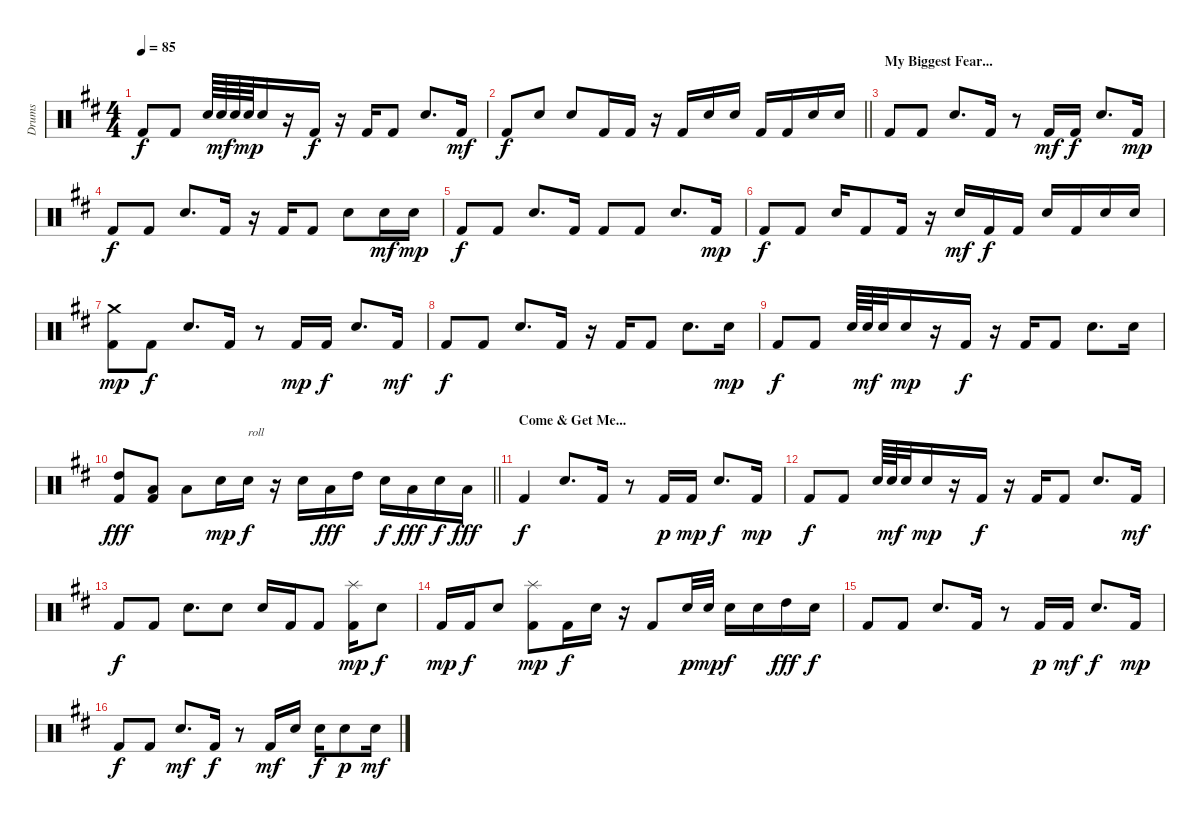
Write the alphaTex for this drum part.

\track ("Drums" "Drums") {instrument percussion}
\staff {score}
\articulation defaults
\ts (4 4)
\tempo 85
\clef neutral
\ks bminor "Kick (hit) 2".8{dy f} "Kick (hit) 2".8 "Electric Snare (hit)".64 "Electric Snare (hit)".64{dy mf} "Electric Snare (hit)".64 "Electric Snare (hit)".64{dy mp} "Electric Snare (hit)".16
r.16 "Kick (hit) 2".16{dy f} r.16 "Kick (hit) 2".16 "Kick (hit) 2".8 "Electric Snare (hit)".8{d} "Kick (hit) 2".16{dy mf} |
\barLineRight lightlight "Kick (hit) 2".8{dy f} "Electric Snare (hit)".8 "Electric Snare (hit)".8 "Kick (hit) 2".16 "Kick (hit) 2".16
r.16 "Kick (hit) 2".16 "Electric Snare (hit)".16 "Electric Snare (hit)".16 "Kick (hit) 2".16 "Kick (hit) 2".16 "Electric Snare (hit)".16 "Electric Snare (hit)".16 |
\section ("" "My Biggest Fear...")
"Kick (hit) 2".8 "Kick (hit) 2".8 "Electric Snare (hit)".8{d} "Kick (hit) 2".16 r.8 "Kick (hit) 2".16{dy mf} "Kick (hit) 2".16{dy f} "Electric Snare (hit)".8{d} "Kick (hit) 2".16{dy mp} |
"Kick (hit) 2".8{dy f} "Kick (hit) 2".8 "Electric Snare (hit)".8{d} "Kick (hit) 2".16 r.16 "Kick (hit) 2".16 "Kick (hit) 2".8 "Electric Snare (hit)".8 "Electric Snare (hit)".16{dy mf} "Electric Snare (hit)".16{dy mp} |
"Kick (hit) 2".8{dy f} "Kick (hit) 2".8 "Electric Snare (hit)".8{d} "Kick (hit) 2".16 "Kick (hit) 2".8 "Kick (hit) 2".8 "Electric Snare (hit)".8{d} "Kick (hit) 2".16{dy mp} |
"Kick (hit) 2".8{dy f} "Kick (hit) 2".8 "Electric Snare (hit)".16 "Kick (hit) 2".8 "Kick (hit) 2".16 r.16 "Electric Snare (hit)".16{dy mf} "Kick (hit) 2".16{dy f} "Kick (hit) 2".16 "Electric Snare (hit)".16 "Kick (hit) 2".16 "Electric Snare (hit)".16 "Electric Snare (hit)".16 |
("Crash medium (hit)" "Kick (hit) 2").8{dy mp} "Kick (hit) 2".8{dy f} "Electric Snare (hit)".8{d} "Kick (hit) 2".16 r.8 "Kick (hit) 2".16{dy mp} "Kick (hit) 2".16{dy f} "Electric Snare (hit)".8{d} "Kick (hit) 2".16{dy mf} |
"Kick (hit) 2".8{dy f} "Kick (hit) 2".8 "Electric Snare (hit)".8{d} "Kick (hit) 2".16 r.16 "Kick (hit) 2".16 "Kick (hit) 2".8 "Electric Snare (hit)".8{d} "Electric Snare (hit)".16{dy mp} |
"Kick (hit) 2".8{dy f} "Kick (hit) 2".8 "Electric Snare (hit)".64 "Electric Snare (hit)".64{dy mf} "Electric Snare (hit)".32 "Electric Snare (hit)".16{dy mp} r.16 "Kick (hit) 2".16{dy f} r.16 "Kick (hit) 2".16 "Kick (hit) 2".8 "Electric Snare (hit)".8{d} "Electric Snare (hit)".16 |
\barLineRight lightlight
("High Tom (hit)" "Kick (hit) 2").8{dy fff} ("Low Tom (hit)" "Kick (hit) 2").8 "Low Floor Tom (hit)".8 "Electric Snare (hit)".16{dy mp} "Electric Snare (hit)".16{txt "roll" dy f} r.16 "Electric Snare (hit)".16 "Low Tom (hit)".16{dy fff} "High Tom (hit)".16 "Electric Snare (hit)".16{dy f} "Low Tom (hit)".16{dy fff} "Electric Snare (hit)".16{dy f} "Low Floor Tom (hit)".16{dy fff} |
\section ("" "Come & Get Me...")
"Kick (hit) 2".4{dy f} "Electric Snare (hit)".8{d} "Kick (hit) 2".16 r.8 "Kick (hit) 2".16{dy p} "Kick (hit) 2".16{dy mp} "Electric Snare (hit)".8{d dy f} "Kick (hit) 2".16{dy mp} |
"Kick (hit) 2".8{dy f} "Kick (hit) 2".8 "Electric Snare (hit)".64 "Electric Snare (hit)".64{dy mf} "Electric Snare (hit)".32 "Electric Snare (hit)".16{dy mp} r.16 "Kick (hit) 2".16{dy f} r.16 "Kick (hit) 2".16 "Kick (hit) 2".8 "Electric Snare (hit)".8{d} "Kick (hit) 2".16{dy mf} |
"Kick (hit) 2".8{dy f} "Kick (hit) 2".8 "Electric Snare (hit)".8{d} "Electric Snare (hit)".8 "Electric Snare (hit)".16 "Kick (hit) 2".16 "Kick (hit) 2".8 ("Splash (hit)" "Kick (hit) 2").16{dy mp} "Electric Snare (hit)".8{dy f} |
"Kick (hit) 2".16{dy mp} "Kick (hit) 2".16{dy f} "Electric Snare (hit)".8 ("Splash (hit)" "Kick (hit) 2").8{dy mp} "Kick (hit) 2".16{dy f} "Electric Snare (hit)".16 r.16 "Kick (hit) 2".8 "Electric Snare (hit)".32{dy p} "Electric Snare (hit)".32{dy mp} "Electric Snare (hit)".16{dy f} "Electric Snare (hit)".16 "High Tom (hit)".16{dy fff} "Electric Snare (hit)".16{dy f} |
"Kick (hit) 2".8 "Kick (hit) 2".8 "Electric Snare (hit)".8{d} "Kick (hit) 2".16 r.8 "Kick (hit) 2".16{dy p} "Kick (hit) 2".16{dy mf} "Electric Snare (hit)".8{d dy f} "Kick (hit) 2".16{dy mp} |
"Kick (hit) 2".8{dy f} "Kick (hit) 2".8 "Electric Snare (hit)".8{d dy mf} "Kick (hit) 2".16{dy f} r.8 "Kick (hit) 2".16{dy mf} "Electric Snare (hit)".16 "Electric Snare (hit)".16{dy f} "Electric Snare (hit)".8{dy p} "Electric Snare (hit)".16{dy mf}
